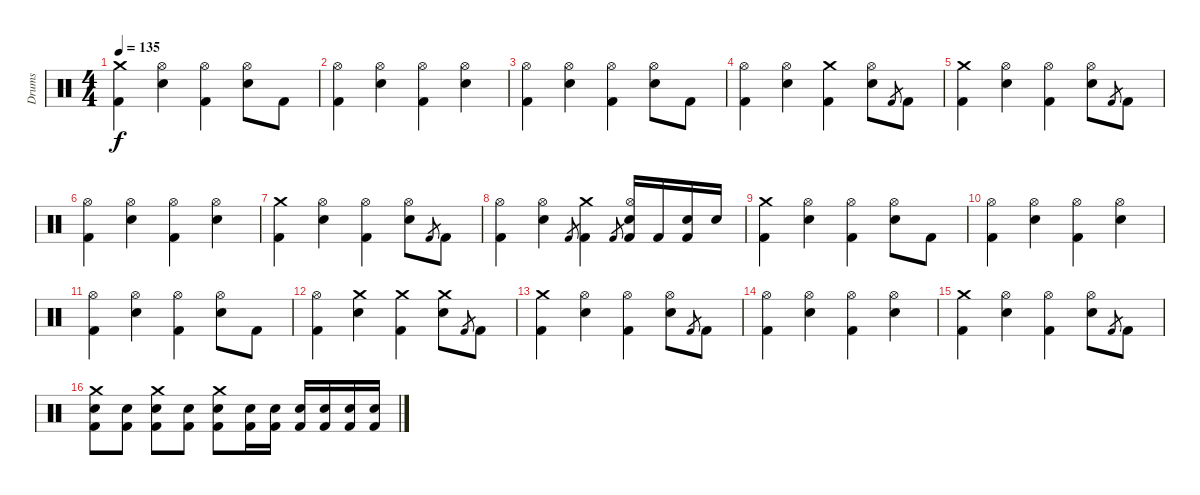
\track ("Drums" "Drums") {instrument percussion}
\staff {score}
\articulation defaults
\ts (4 4)
\tempo 135
\clef neutral
\ks c
("Crash medium (hit)" "Kick (hit) 2").4{dy f} ("Hi-Hat (open)" "Snare (hit) 2").4 ("Hi-Hat (open)" "Kick (hit) 2").4 ("Hi-Hat (open)" "Snare (hit) 2").8 "Kick (hit) 2".8 |
("Hi-Hat (open)" "Kick (hit) 2").4 ("Hi-Hat (open)" "Snare (hit) 2").4 ("Hi-Hat (open)" "Kick (hit) 2").4 ("Hi-Hat (open)" "Snare (hit) 2").4 |
("Hi-Hat (open)" "Kick (hit) 2").4 ("Hi-Hat (open)" "Snare (hit) 2").4 ("Hi-Hat (open)" "Kick (hit) 2").4 ("Hi-Hat (open)" "Snare (hit) 2").8 "Kick (hit) 2".8 |
("Hi-Hat (open)" "Kick (hit) 2").4 ("Hi-Hat (open)" "Snare (hit) 2").4 ("Crash medium (hit)" "Kick (hit) 2").4 ("Hi-Hat (open)" "Snare (hit) 2").8 "Kick (hit) 2".8{gr} "Kick (hit) 2".8 |
("Crash medium (hit)" "Kick (hit) 2").4 ("Hi-Hat (open)" "Snare (hit) 2").4 ("Hi-Hat (open)" "Kick (hit) 2").4 ("Hi-Hat (open)" "Snare (hit) 2").8 "Kick (hit) 2".8{gr} "Kick (hit) 2".8 |
("Hi-Hat (open)" "Kick (hit) 2").4 ("Hi-Hat (open)" "Snare (hit) 2").4 ("Hi-Hat (open)" "Kick (hit) 2").4 ("Hi-Hat (open)" "Snare (hit) 2").4 |
("Crash medium (hit)" "Kick (hit) 2").4 ("Hi-Hat (open)" "Snare (hit) 2").4 ("Hi-Hat (open)" "Kick (hit) 2").4 ("Hi-Hat (open)" "Snare (hit) 2").8 "Kick (hit) 2".8{gr} "Kick (hit) 2".8 |
("Hi-Hat (open)" "Kick (hit) 2").4 ("Hi-Hat (open)" "Snare (hit) 2").4 "Kick (hit) 2".8{gr} ("Crash medium (hit)" "Kick (hit) 2").4 "Kick (hit) 2".8{gr} ("Hi-Hat (open)" "Snare (hit) 2" "Kick (hit) 2").16 "Kick (hit) 2".16 ("Snare (hit) 2" "Kick (hit) 2").16 "Snare (hit) 2".16 |
("Crash medium (hit)" "Kick (hit) 2").4 ("Hi-Hat (open)" "Snare (hit) 2").4 ("Hi-Hat (open)" "Kick (hit) 2").4 ("Hi-Hat (open)" "Snare (hit) 2").8 "Kick (hit) 2".8 |
("Hi-Hat (open)" "Kick (hit) 2").4 ("Hi-Hat (open)" "Snare (hit) 2").4 ("Hi-Hat (open)" "Kick (hit) 2").4 ("Hi-Hat (open)" "Snare (hit) 2").4 |
("Hi-Hat (open)" "Kick (hit) 2").4 ("Hi-Hat (open)" "Snare (hit) 2").4 ("Hi-Hat (open)" "Kick (hit) 2").4 ("Hi-Hat (open)" "Snare (hit) 2").8 "Kick (hit) 2".8 |
("Hi-Hat (open)" "Kick (hit) 2").4 ("Crash medium (hit)" "Snare (hit) 2").4 ("Crash medium (hit)" "Kick (hit) 2").4 ("Crash medium (hit)" "Snare (hit) 2").8 "Kick (hit) 2".8{gr} "Kick (hit) 2".8 |
("Crash medium (hit)" "Kick (hit) 2").4 ("Hi-Hat (open)" "Snare (hit) 2").4 ("Hi-Hat (open)" "Kick (hit) 2").4 ("Hi-Hat (open)" "Snare (hit) 2").8 "Kick (hit) 2".8{gr} "Kick (hit) 2".8 |
("Hi-Hat (open)" "Kick (hit) 2").4 ("Hi-Hat (open)" "Snare (hit) 2").4 ("Hi-Hat (open)" "Kick (hit) 2").4 ("Hi-Hat (open)" "Snare (hit) 2").4 |
("Crash medium (hit)" "Kick (hit) 2").4 ("Hi-Hat (open)" "Snare (hit) 2").4 ("Hi-Hat (open)" "Kick (hit) 2").4 ("Hi-Hat (open)" "Snare (hit) 2").8 "Kick (hit) 2".8{gr} "Kick (hit) 2".8 |
("Crash medium (hit)" "Snare (hit) 2" "Kick (hit) 2").8 ("Snare (hit) 2" "Kick (hit) 2").8 ("Crash medium (hit)" "Snare (hit) 2" "Kick (hit) 2").8 ("Snare (hit) 2" "Kick (hit) 2").8 ("Crash medium (hit)" "Snare (hit) 2" "Kick (hit) 2").8 ("Snare (hit) 2" "Kick (hit) 2").16 ("Snare (hit) 2" "Kick (hit) 2").16 ("Snare (hit) 2" "Kick (hit) 2").16 ("Snare (hit) 2" "Kick (hit) 2").16 ("Snare (hit) 2" "Kick (hit) 2").16 ("Snare (hit) 2" "Kick (hit) 2").16
